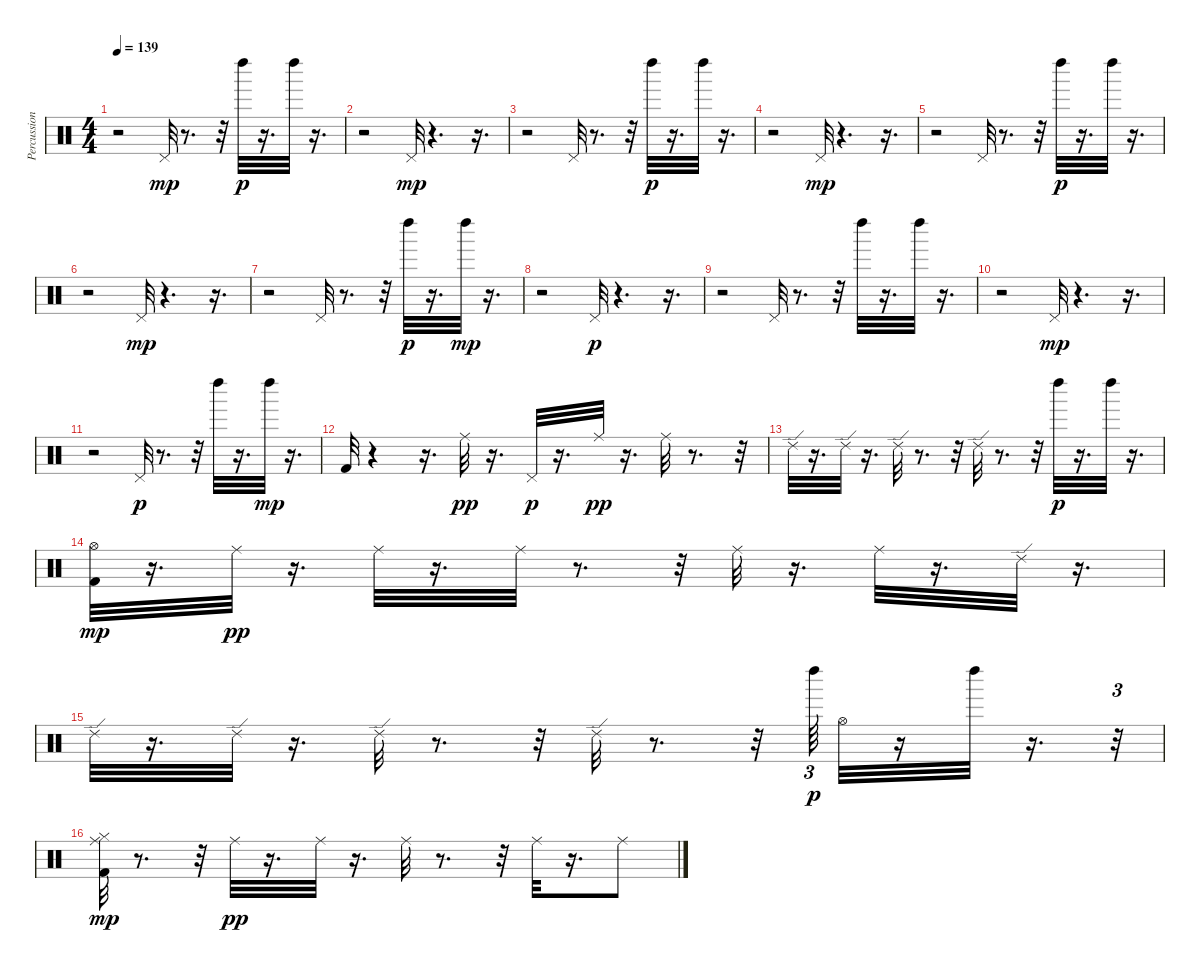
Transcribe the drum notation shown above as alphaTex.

\track ("Percussion" "Percussion") {instrument percussion}
\staff {score}
\articulation defaults
\ts (4 4)
\tempo 139
\clef neutral
\ks c
r.2{dy mp} "Pedal Hi-Hat (hit)".32 r.8{d} r.32 "Left Maraca (hit)".32{dy p} r.16{d} "Left Maraca (hit)".32 r.16{d} |
r.2 "Pedal Hi-Hat (hit)".32{dy mp} r.4{d} r.16{d} |
r.2 "Pedal Hi-Hat (hit)".32 r.8{d} r.32 "Left Maraca (hit)".32{dy p} r.16{d} "Left Maraca (hit)".32 r.16{d} |
r.2 "Pedal Hi-Hat (hit)".32{dy mp} r.4{d} r.16{d} |
r.2 "Pedal Hi-Hat (hit)".32 r.8{d} r.32 "Left Maraca (hit)".32{dy p} r.16{d} "Left Maraca (hit)".32 r.16{d} |
r.2 "Pedal Hi-Hat (hit)".32{dy mp} r.4{d} r.16{d} |
r.2 "Pedal Hi-Hat (hit)".32 r.8{d} r.32 "Left Maraca (hit)".32{dy p} r.16{d} "Left Maraca (hit)".32{dy mp} r.16{d} |
r.2 "Pedal Hi-Hat (hit)".32{dy p} r.4{d} r.16{d} |
r.2 "Pedal Hi-Hat (hit)".32 r.8{d} r.32 "Left Maraca (hit)".32 r.16{d} "Left Maraca (hit)".32 r.16{d} |
r.2 "Pedal Hi-Hat (hit)".32{dy mp} r.4{d} r.16{d} |
r.2 "Pedal Hi-Hat (hit)".32{dy p} r.8{d} r.32 "Left Maraca (hit)".32 r.16{d} "Left Maraca (hit)".32{dy mp} r.16{d} |
"Kick (hit) 2".32 r.4 r.16{d} "Ride (middle)".32{dy pp} r.16{d} "Pedal Hi-Hat (hit)".32{dy p} r.16{d} "Ride (middle)".32{dy pp} r.16{d} "Ride (middle)".32 r.8{d} r.32 |
"Ride (edge) 2".32 r.16{d} "Ride (edge) 2".32 r.16{d} "Ride (edge) 2".32 r.8{d} r.32 "Ride (edge) 2".32 r.8{d} r.32 "Left Maraca (hit)".32{dy p} r.16{d} "Left Maraca (hit)".32 r.16{d} |
("Hi-Hat (open)" "Kick (hit) 2").32{dy mp} r.16{d} "Ride (middle)".32{dy pp} r.16{d} "Ride (middle)".32 r.16{d} "Ride (middle)".32 r.8{d} r.32 "Ride (middle)".32 r.16{d} "Ride (middle)".32 r.16{d} "Ride (edge) 2".32 r.16{d} |
"Ride (edge) 2".32 r.16{d} "Ride (edge) 2".32 r.16{d} "Ride (edge) 2".32 r.8{d} r.32 "Ride (edge) 2".32 r.8{d} r.32 "Left Maraca (hit)".64{tu (3 2) dy p} "Hi-Hat (open)".32 r.16 "Left Maraca (hit)".32 r.16{d} r.32{tu (3 2)} |
("Ride (middle)" "Hi-Hat (closed)" "Kick (hit) 2").32{dy mp} r.8{d} r.32 "Ride (middle)".32{dy pp} r.16{d} "Ride (middle)".32 r.16{d} "Ride (middle)".32 r.8{d} r.32 "Ride (middle)".32 r.16{d} "Ride (middle)".8
